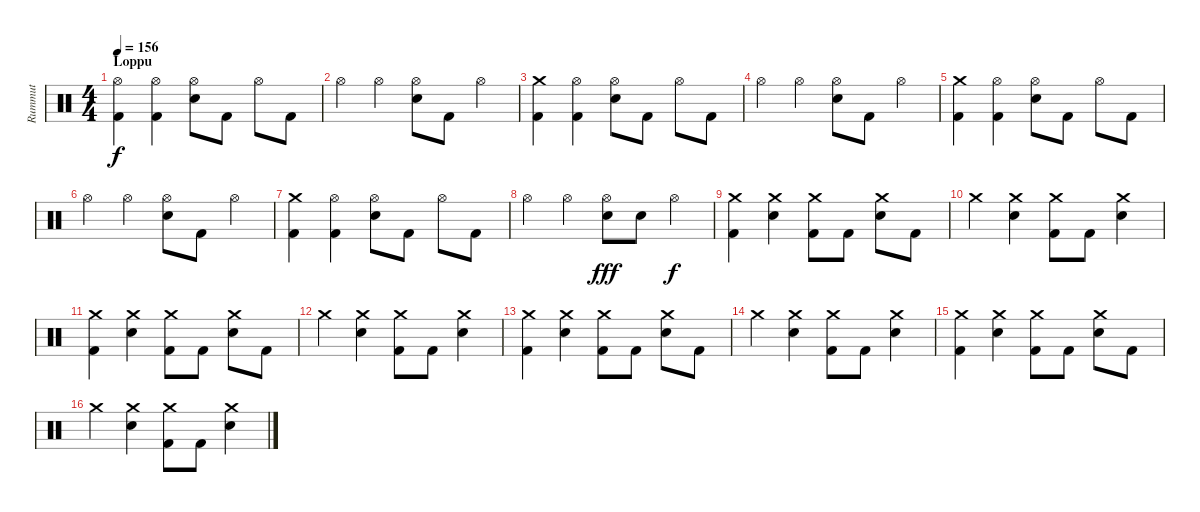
\track ("Rummut" "Rummut") {instrument percussion}
\staff {score}
\articulation defaults
\ts (4 4)
\section ("" "Loppu")
\tempo 156
\clef neutral
\ks c
("Kick (hit) 2" "Hi-Hat (open)").4{dy f} ("Kick (hit) 2" "Hi-Hat (open)").4 ("Hi-Hat (open)" "Snare (hit) 2").8 "Kick (hit) 2".8 "Hi-Hat (open)".8 "Kick (hit) 2".8 |
"Hi-Hat (open)".4 "Hi-Hat (open)".4 ("Hi-Hat (open)" "Snare (hit) 2").8 "Kick (hit) 2".8 "Hi-Hat (open)".4 |
("Kick (hit) 2" "Crash medium (hit)").4 ("Kick (hit) 2" "Hi-Hat (open)").4 ("Hi-Hat (open)" "Snare (hit) 2").8 "Kick (hit) 2".8 "Hi-Hat (open)".8 "Kick (hit) 2".8 |
"Hi-Hat (open)".4 "Hi-Hat (open)".4 ("Hi-Hat (open)" "Snare (hit) 2").8 "Kick (hit) 2".8 "Hi-Hat (open)".4 |
("Kick (hit) 2" "Crash medium (hit)").4 ("Kick (hit) 2" "Hi-Hat (open)").4 ("Hi-Hat (open)" "Snare (hit) 2").8 "Kick (hit) 2".8 "Hi-Hat (open)".8 "Kick (hit) 2".8 |
"Hi-Hat (open)".4 "Hi-Hat (open)".4 ("Hi-Hat (open)" "Snare (hit) 2").8 "Kick (hit) 2".8 "Hi-Hat (open)".4 |
("Kick (hit) 2" "Crash medium (hit)").4 ("Kick (hit) 2" "Hi-Hat (open)").4 ("Hi-Hat (open)" "Snare (hit) 2").8 "Kick (hit) 2".8 "Hi-Hat (open)".8 "Kick (hit) 2".8 |
"Hi-Hat (open)".4 "Hi-Hat (open)".4 ("Hi-Hat (open)" "Snare (hit) 2").8{dy fff} "Snare (hit) 2".8 "Hi-Hat (open)".4{dy f} |
("Kick (hit) 2" "Crash medium (hit)").4 ("Crash medium (hit)" "Snare (hit) 2").4 ("Kick (hit) 2" "Crash medium (hit)").8 "Kick (hit) 2".8 ("Crash medium (hit)" "Snare (hit) 2").8 "Kick (hit) 2".8 |
"Crash medium (hit)".4 ("Crash medium (hit)" "Snare (hit) 2").4 ("Kick (hit) 2" "Crash medium (hit)").8 "Kick (hit) 2".8 ("Crash medium (hit)" "Snare (hit) 2").4 |
("Kick (hit) 2" "Crash medium (hit)").4 ("Crash medium (hit)" "Snare (hit) 2").4 ("Kick (hit) 2" "Crash medium (hit)").8 "Kick (hit) 2".8 ("Crash medium (hit)" "Snare (hit) 2").8 "Kick (hit) 2".8 |
"Crash medium (hit)".4 ("Crash medium (hit)" "Snare (hit) 2").4 ("Kick (hit) 2" "Crash medium (hit)").8 "Kick (hit) 2".8 ("Crash medium (hit)" "Snare (hit) 2").4 |
("Kick (hit) 2" "Crash medium (hit)").4 ("Crash medium (hit)" "Snare (hit) 2").4 ("Kick (hit) 2" "Crash medium (hit)").8 "Kick (hit) 2".8 ("Crash medium (hit)" "Snare (hit) 2").8 "Kick (hit) 2".8 |
"Crash medium (hit)".4 ("Crash medium (hit)" "Snare (hit) 2").4 ("Kick (hit) 2" "Crash medium (hit)").8 "Kick (hit) 2".8 ("Crash medium (hit)" "Snare (hit) 2").4 |
("Kick (hit) 2" "Crash medium (hit)").4 ("Crash medium (hit)" "Snare (hit) 2").4 ("Kick (hit) 2" "Crash medium (hit)").8 "Kick (hit) 2".8 ("Crash medium (hit)" "Snare (hit) 2").8 "Kick (hit) 2".8 |
"Crash medium (hit)".4 ("Crash medium (hit)" "Snare (hit) 2").4 ("Kick (hit) 2" "Crash medium (hit)").8 "Kick (hit) 2".8 ("Crash medium (hit)" "Snare (hit) 2").4
